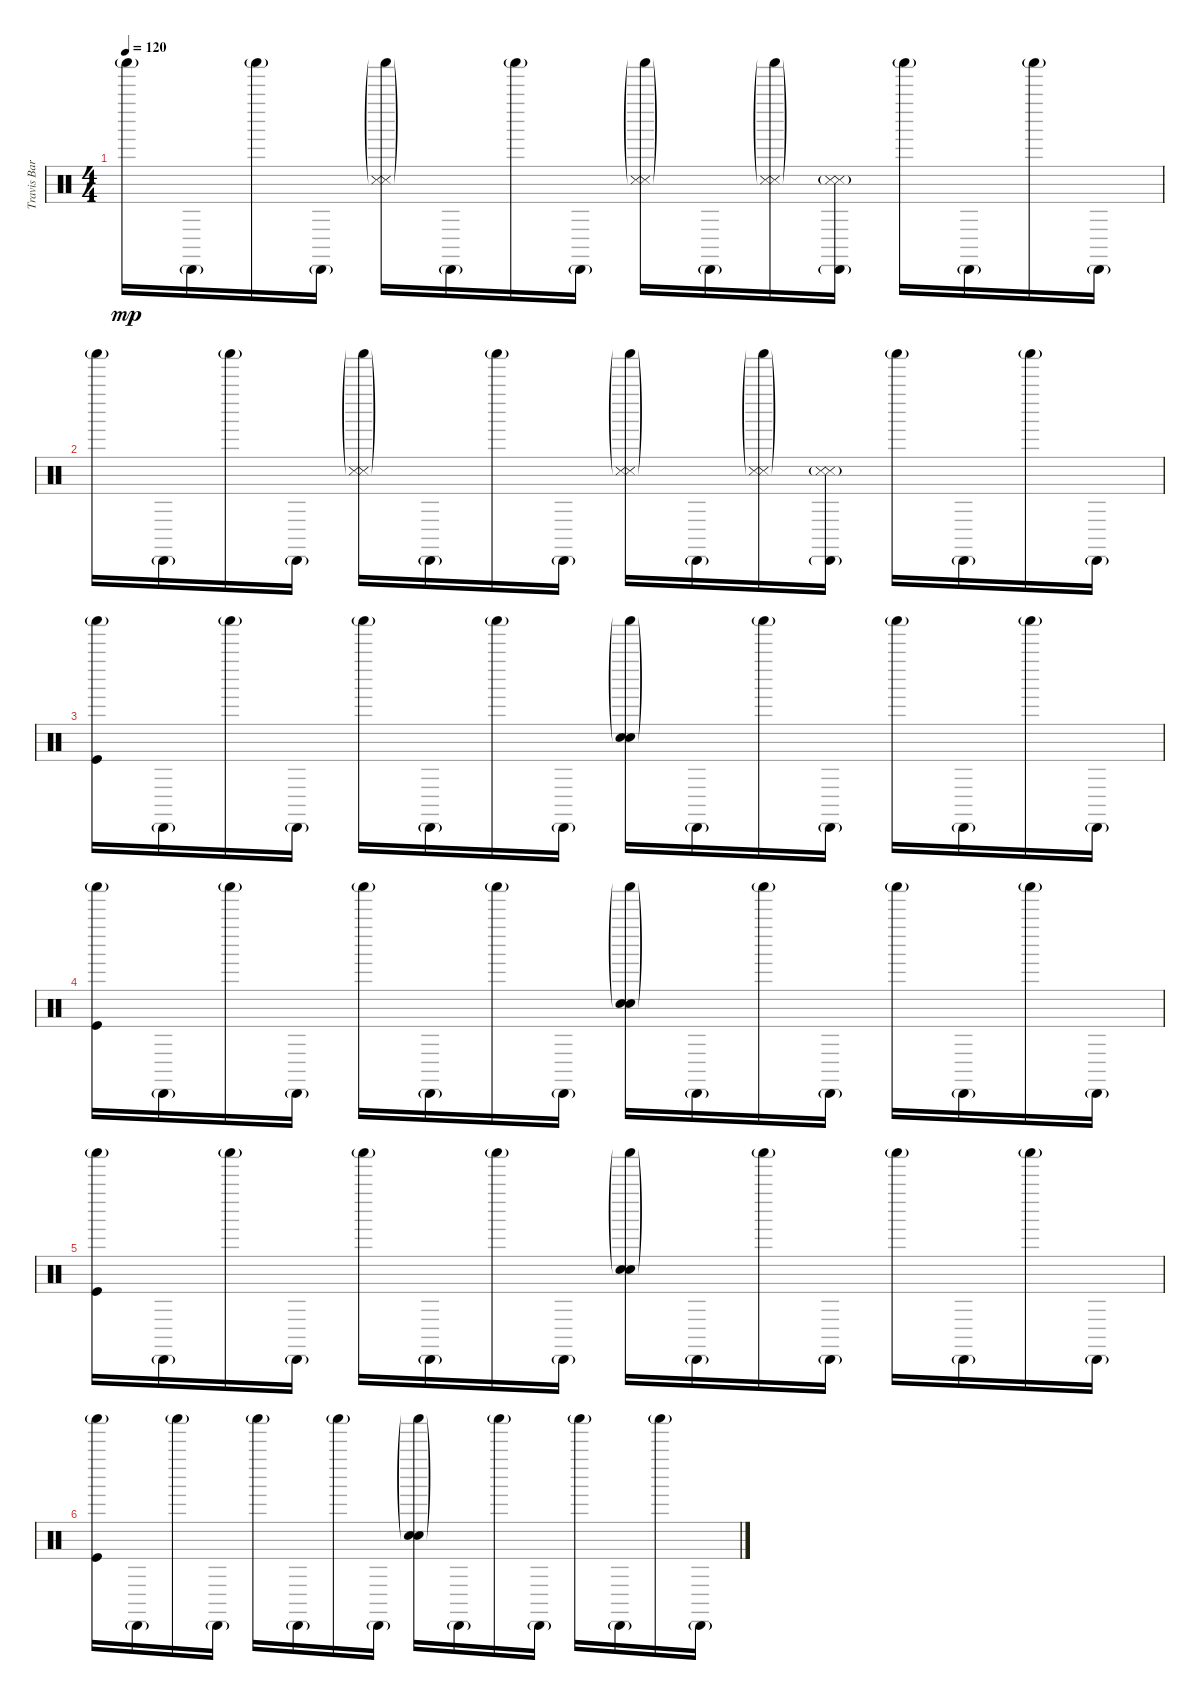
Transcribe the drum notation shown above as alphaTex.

\track ("Travis Barker - Drums" "Travis Bar") {instrument percussion}
\staff {score}
\articulation defaults
\ts (4 4)
\tempo 120
\clef neutral
\ks c "Shaker (hit)"{g}.16{dy mp} "Cabasa (hit)"{g}.16 "Shaker (hit)"{g}.16 "Cabasa (hit)"{g}.16
("Shaker (hit)"{g} "Snare (side stick) 3"{g} "Metronome (hit)"{g}).16 "Cabasa (hit)"{g}.16 "Shaker (hit)"{g}.16 "Cabasa (hit)"{g}.16 ("Shaker (hit)"{g} "Snare (side stick) 3"{g} "Metronome (hit)"{g}).16 "Cabasa (hit)"{g}.16 ("Shaker (hit)"{g} "Snare (side stick) 3"{g} "Metronome (hit)"{g}).16 ("Cabasa (hit)"{g} "Snare (side stick) 3"{g} "Metronome (hit)").16 "Shaker (hit)"{g}.16 "Cabasa (hit)"{g}.16 "Shaker (hit)"{g}.16 "Cabasa (hit)"{g}.16 |
"Shaker (hit)"{g}.16 "Cabasa (hit)"{g}.16 "Shaker (hit)"{g}.16 "Cabasa (hit)"{g}.16 ("Shaker (hit)"{g} "Snare (side stick) 3"{g} "Metronome (hit)"{g}).16 "Cabasa (hit)"{g}.16 "Shaker (hit)"{g}.16 "Cabasa (hit)"{g}.16 ("Shaker (hit)"{g} "Snare (side stick) 3"{g} "Metronome (hit)"{g}).16 "Cabasa (hit)"{g}.16 ("Shaker (hit)"{g} "Snare (side stick) 3"{g} "Metronome (hit)"{g}).16 ("Cabasa (hit)"{g} "Snare (side stick) 3"{g} "Metronome (hit)").16 "Shaker (hit)"{g}.16 "Cabasa (hit)"{g}.16 "Shaker (hit)"{g}.16 "Cabasa (hit)"{g}.16 |
("Shaker (hit)"{g} "Kick (hit)").16 "Cabasa (hit)"{g}.16 "Shaker (hit)"{g}.16 "Cabasa (hit)"{g}.16 "Shaker (hit)"{g}.16 "Cabasa (hit)"{g}.16 "Shaker (hit)"{g}.16 "Cabasa (hit)"{g}.16 ("Shaker (hit)"{g} "Snare (hit) 2"{g} "Electric Snare (hit)"{g}).16 "Cabasa (hit)"{g}.16 "Shaker (hit)"{g}.16 "Cabasa (hit)"{g}.16 "Shaker (hit)"{g}.16 "Cabasa (hit)"{g}.16 "Shaker (hit)"{g}.16 "Cabasa (hit)"{g}.16 |
("Shaker (hit)"{g} "Kick (hit)").16 "Cabasa (hit)"{g}.16 "Shaker (hit)"{g}.16 "Cabasa (hit)"{g}.16 "Shaker (hit)"{g}.16 "Cabasa (hit)"{g}.16 "Shaker (hit)"{g}.16 "Cabasa (hit)"{g}.16 ("Shaker (hit)"{g} "Snare (hit) 2"{g} "Electric Snare (hit)"{g}).16 "Cabasa (hit)"{g}.16 "Shaker (hit)"{g}.16 "Cabasa (hit)"{g}.16 "Shaker (hit)"{g}.16 "Cabasa (hit)"{g}.16 "Shaker (hit)"{g}.16 "Cabasa (hit)"{g}.16 |
("Shaker (hit)"{g} "Kick (hit)").16 "Cabasa (hit)"{g}.16 "Shaker (hit)"{g}.16 "Cabasa (hit)"{g}.16 "Shaker (hit)"{g}.16 "Cabasa (hit)"{g}.16 "Shaker (hit)"{g}.16 "Cabasa (hit)"{g}.16 ("Shaker (hit)"{g} "Snare (hit) 2"{g} "Electric Snare (hit)"{g}).16 "Cabasa (hit)"{g}.16 "Shaker (hit)"{g}.16 "Cabasa (hit)"{g}.16 "Shaker (hit)"{g}.16 "Cabasa (hit)"{g}.16 "Shaker (hit)"{g}.16 "Cabasa (hit)"{g}.16 |
("Shaker (hit)"{g} "Kick (hit)").16 "Cabasa (hit)"{g}.16 "Shaker (hit)"{g}.16 "Cabasa (hit)"{g}.16 "Shaker (hit)"{g}.16 "Cabasa (hit)"{g}.16 "Shaker (hit)"{g}.16 "Cabasa (hit)"{g}.16 ("Shaker (hit)"{g} "Snare (hit) 2"{g} "Electric Snare (hit)"{g}).16 "Cabasa (hit)"{g}.16 "Shaker (hit)"{g}.16 "Cabasa (hit)"{g}.16 "Shaker (hit)"{g}.16 "Cabasa (hit)"{g}.16 "Shaker (hit)"{g}.16 "Cabasa (hit)"{g}.16
